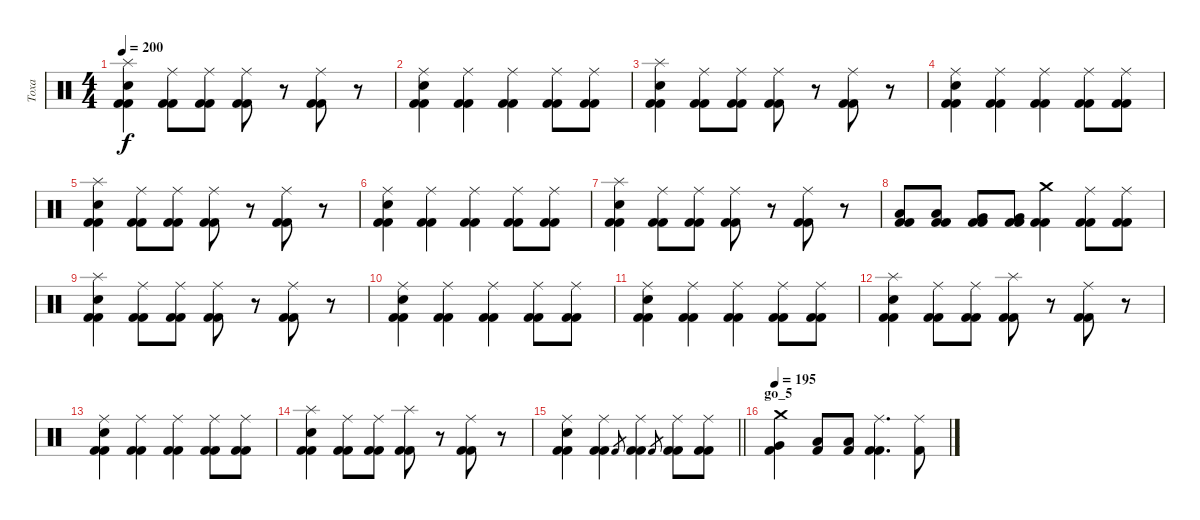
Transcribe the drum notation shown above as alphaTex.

\track ("Toxa" "Toxa") {instrument percussion}
\staff {score}
\articulation defaults
\ts (4 4)
\tempo 200
\clef neutral
\ks c
("Electric Snare (hit)" "Kick (hit) 2" "Kick (hit) 2" "Splash (hit)").4{dy f} ("Ride (middle)" "Kick (hit) 2" "Kick (hit) 2").8 ("Ride (middle)" "Kick (hit) 2" "Kick (hit) 2").8 ("Kick (hit) 2" "Kick (hit) 2" "Ride (middle)").8 r.8 ("Kick (hit) 2" "Kick (hit) 2" "Ride (middle)").8 r.8 |
("Electric Snare (hit)" "Kick (hit) 2" "Kick (hit) 2" "Ride (middle)").4 ("Kick (hit) 2" "Kick (hit) 2" "Ride (middle)").4 ("Kick (hit) 2" "Kick (hit) 2" "Ride (middle)").4 ("Kick (hit) 2" "Kick (hit) 2" "Ride (middle)").8 ("Kick (hit) 2" "Kick (hit) 2" "Ride (middle)").8 |
("Electric Snare (hit)" "Kick (hit) 2" "Kick (hit) 2" "Splash (hit)").4 ("Ride (middle)" "Kick (hit) 2" "Kick (hit) 2").8 ("Ride (middle)" "Kick (hit) 2" "Kick (hit) 2").8 ("Kick (hit) 2" "Kick (hit) 2" "Ride (middle)").8 r.8 ("Kick (hit) 2" "Kick (hit) 2" "Ride (middle)").8 r.8 |
("Electric Snare (hit)" "Kick (hit) 2" "Kick (hit) 2" "Ride (middle)").4 ("Kick (hit) 2" "Kick (hit) 2" "Ride (middle)").4 ("Kick (hit) 2" "Kick (hit) 2" "Ride (middle)").4 ("Kick (hit) 2" "Kick (hit) 2" "Ride (middle)").8 ("Kick (hit) 2" "Kick (hit) 2" "Ride (middle)").8 |
("Electric Snare (hit)" "Kick (hit) 2" "Kick (hit) 2" "Splash (hit)").4 ("Ride (middle)" "Kick (hit) 2" "Kick (hit) 2").8 ("Ride (middle)" "Kick (hit) 2" "Kick (hit) 2").8 ("Kick (hit) 2" "Kick (hit) 2" "Ride (middle)").8 r.8 ("Kick (hit) 2" "Kick (hit) 2" "Ride (middle)").8 r.8 |
("Electric Snare (hit)" "Kick (hit) 2" "Kick (hit) 2" "Ride (middle)").4 ("Kick (hit) 2" "Kick (hit) 2" "Ride (middle)").4 ("Kick (hit) 2" "Kick (hit) 2" "Ride (middle)").4 ("Kick (hit) 2" "Kick (hit) 2" "Ride (middle)").8 ("Kick (hit) 2" "Kick (hit) 2" "Ride (middle)").8 |
("Electric Snare (hit)" "Kick (hit) 2" "Kick (hit) 2" "Splash (hit)").4 ("Ride (middle)" "Kick (hit) 2" "Kick (hit) 2").8 ("Ride (middle)" "Kick (hit) 2" "Kick (hit) 2").8 ("Kick (hit) 2" "Kick (hit) 2" "Ride (middle)").8 r.8 ("Kick (hit) 2" "Kick (hit) 2" "Ride (middle)").8 r.8 |
("Kick (hit) 2" "Kick (hit) 2" "Low Tom (hit)").8 ("Kick (hit) 2" "Kick (hit) 2" "Low Tom (hit)").8 ("Kick (hit) 2" "Kick (hit) 2" "Very Low Tom (hit)").8 ("Kick (hit) 2" "Kick (hit) 2" "Very Low Tom (hit)").8 ("Kick (hit) 2" "Kick (hit) 2" "Crash medium (hit)").4 ("Kick (hit) 2" "Kick (hit) 2" "Ride (middle)").8 ("Kick (hit) 2" "Kick (hit) 2" "Ride (middle)").8 |
("Electric Snare (hit)" "Kick (hit) 2" "Kick (hit) 2" "Splash (hit)").4 ("Ride (middle)" "Kick (hit) 2" "Kick (hit) 2").8 ("Ride (middle)" "Kick (hit) 2" "Kick (hit) 2").8 ("Kick (hit) 2" "Kick (hit) 2" "Ride (middle)").8 r.8 ("Kick (hit) 2" "Kick (hit) 2" "Ride (middle)").8 r.8 |
("Electric Snare (hit)" "Kick (hit) 2" "Kick (hit) 2" "Ride (middle)").4 ("Kick (hit) 2" "Kick (hit) 2" "Ride (middle)").4 ("Kick (hit) 2" "Kick (hit) 2" "Ride (middle)").4 ("Kick (hit) 2" "Kick (hit) 2" "Ride (middle)").8 ("Kick (hit) 2" "Kick (hit) 2" "Ride (middle)").8 |
("Electric Snare (hit)" "Kick (hit) 2" "Kick (hit) 2" "Ride (middle)").4 ("Kick (hit) 2" "Kick (hit) 2" "Ride (middle)").4 ("Kick (hit) 2" "Kick (hit) 2" "Ride (middle)").4 ("Kick (hit) 2" "Kick (hit) 2" "Ride (middle)").8 ("Kick (hit) 2" "Kick (hit) 2" "Ride (middle)").8 |
("Electric Snare (hit)" "Kick (hit) 2" "Kick (hit) 2" "Splash (hit)").4 ("Ride (middle)" "Kick (hit) 2" "Kick (hit) 2").8 ("Ride (middle)" "Kick (hit) 2" "Kick (hit) 2").8 ("Kick (hit) 2" "Kick (hit) 2" "Splash (hit)").8 r.8 ("Kick (hit) 2" "Kick (hit) 2" "Ride (middle)").8 r.8 |
("Electric Snare (hit)" "Kick (hit) 2" "Kick (hit) 2" "Ride (middle)").4 ("Kick (hit) 2" "Kick (hit) 2" "Ride (middle)").4 ("Kick (hit) 2" "Kick (hit) 2" "Ride (middle)").4 ("Kick (hit) 2" "Kick (hit) 2" "Ride (middle)").8 ("Kick (hit) 2" "Kick (hit) 2" "Ride (middle)").8 |
("Electric Snare (hit)" "Kick (hit) 2" "Kick (hit) 2" "Splash (hit)").4 ("Ride (middle)" "Kick (hit) 2" "Kick (hit) 2").8 ("Ride (middle)" "Kick (hit) 2" "Kick (hit) 2").8 ("Kick (hit) 2" "Kick (hit) 2" "Splash (hit)").8 r.8 ("Kick (hit) 2" "Kick (hit) 2" "Ride (middle)").8 r.8 |
\barLineRight lightlight
("Electric Snare (hit)" "Kick (hit) 2" "Kick (hit) 2" "Ride (middle)").4 ("Kick (hit) 2" "Kick (hit) 2" "Ride (middle)").4 "Kick (hit) 2".8{gr} ("Kick (hit) 2" "Kick (hit) 2" "Ride (middle)").4 "Kick (hit) 2".8{gr} ("Kick (hit) 2" "Kick (hit) 2" "Ride (middle)").8 ("Kick (hit) 2" "Kick (hit) 2" "Ride (middle)").8 |
\section ("" "go_5")
\tempo 195
("Kick (hit) 2" "Very Low Tom (hit)" "Crash medium (hit)").4 ("Low Tom (hit)" "Kick (hit) 2").8 ("Low Tom (hit)" "Kick (hit) 2").8 ("Kick (hit) 2" "Ride (middle)" "Kick (hit) 2").4{d} ("Ride (middle)" "Kick (hit) 2").8
